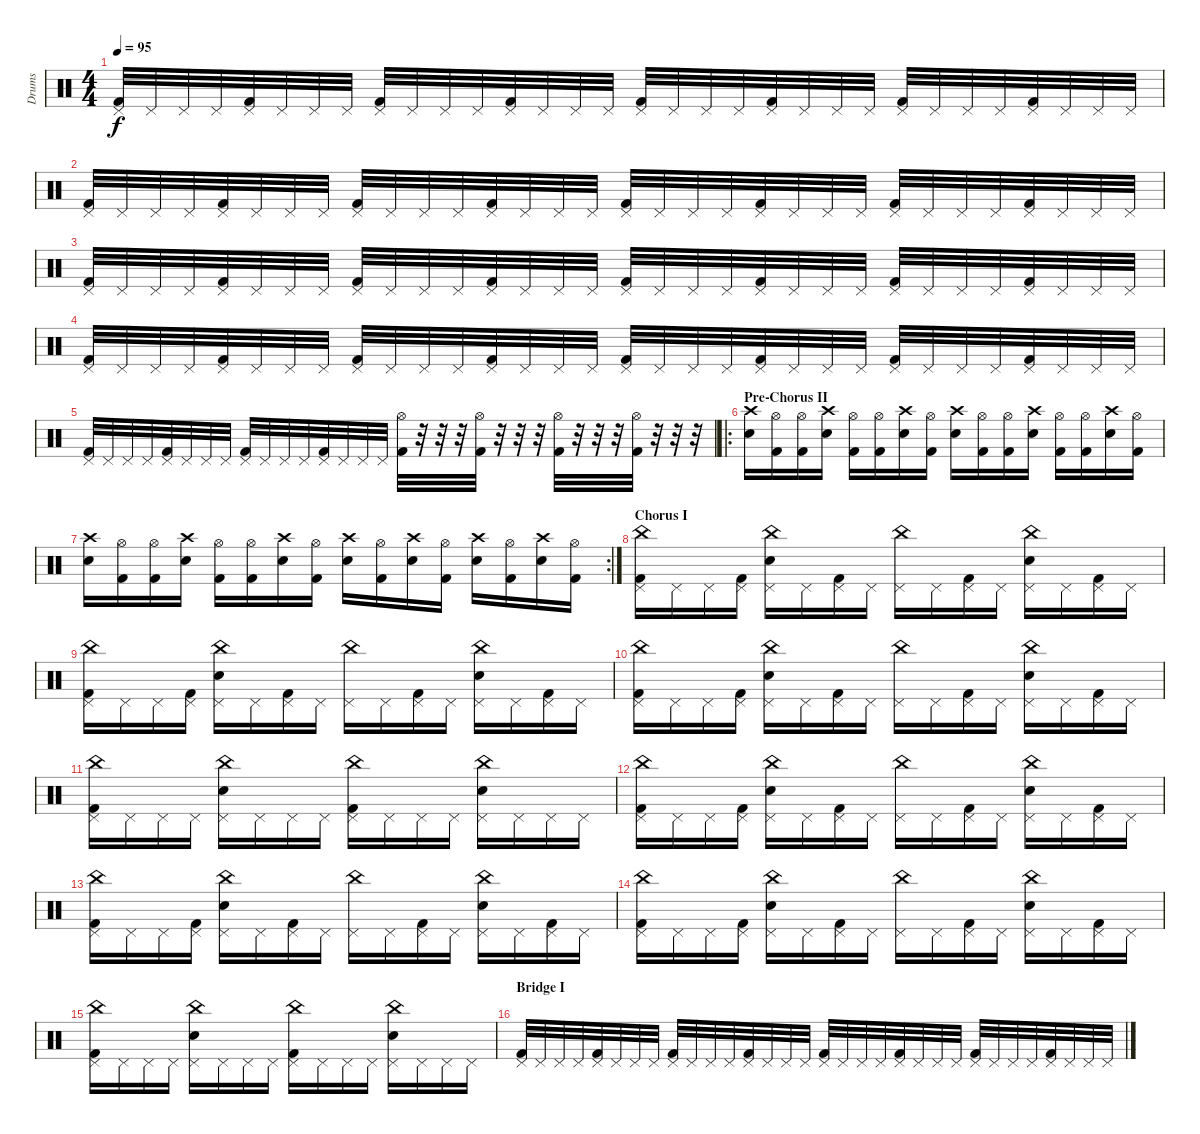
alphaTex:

\track ("Drums" "Drums") {instrument percussion}
\staff {score}
\articulation defaults
\ts (4 4)
\tempo 95
\clef neutral
\ks c
("Pedal Hi-Hat (hit)" "Kick (hit) 2").32{dy f} "Pedal Hi-Hat (hit)".32 "Pedal Hi-Hat (hit)".32 "Pedal Hi-Hat (hit)".32 ("Pedal Hi-Hat (hit)" "Kick (hit) 2").32 "Pedal Hi-Hat (hit)".32 "Pedal Hi-Hat (hit)".32 "Pedal Hi-Hat (hit)".32 ("Pedal Hi-Hat (hit)" "Kick (hit) 2").32 "Pedal Hi-Hat (hit)".32 "Pedal Hi-Hat (hit)".32 "Pedal Hi-Hat (hit)".32 ("Pedal Hi-Hat (hit)" "Kick (hit) 2").32 "Pedal Hi-Hat (hit)".32 "Pedal Hi-Hat (hit)".32 "Pedal Hi-Hat (hit)".32 ("Pedal Hi-Hat (hit)" "Kick (hit) 2").32 "Pedal Hi-Hat (hit)".32 "Pedal Hi-Hat (hit)".32 "Pedal Hi-Hat (hit)".32 ("Pedal Hi-Hat (hit)" "Kick (hit) 2").32 "Pedal Hi-Hat (hit)".32 "Pedal Hi-Hat (hit)".32 "Pedal Hi-Hat (hit)".32 ("Pedal Hi-Hat (hit)" "Kick (hit) 2").32 "Pedal Hi-Hat (hit)".32 "Pedal Hi-Hat (hit)".32 "Pedal Hi-Hat (hit)".32 ("Pedal Hi-Hat (hit)" "Kick (hit) 2").32 "Pedal Hi-Hat (hit)".32 "Pedal Hi-Hat (hit)".32 "Pedal Hi-Hat (hit)".32 |
("Pedal Hi-Hat (hit)" "Kick (hit) 2").32 "Pedal Hi-Hat (hit)".32 "Pedal Hi-Hat (hit)".32 "Pedal Hi-Hat (hit)".32 ("Pedal Hi-Hat (hit)" "Kick (hit) 2").32 "Pedal Hi-Hat (hit)".32 "Pedal Hi-Hat (hit)".32 "Pedal Hi-Hat (hit)".32 ("Pedal Hi-Hat (hit)" "Kick (hit) 2").32 "Pedal Hi-Hat (hit)".32 "Pedal Hi-Hat (hit)".32 "Pedal Hi-Hat (hit)".32 ("Pedal Hi-Hat (hit)" "Kick (hit) 2").32 "Pedal Hi-Hat (hit)".32 "Pedal Hi-Hat (hit)".32 "Pedal Hi-Hat (hit)".32 ("Pedal Hi-Hat (hit)" "Kick (hit) 2").32 "Pedal Hi-Hat (hit)".32 "Pedal Hi-Hat (hit)".32 "Pedal Hi-Hat (hit)".32 ("Pedal Hi-Hat (hit)" "Kick (hit) 2").32 "Pedal Hi-Hat (hit)".32 "Pedal Hi-Hat (hit)".32 "Pedal Hi-Hat (hit)".32 ("Pedal Hi-Hat (hit)" "Kick (hit) 2").32 "Pedal Hi-Hat (hit)".32 "Pedal Hi-Hat (hit)".32 "Pedal Hi-Hat (hit)".32 ("Pedal Hi-Hat (hit)" "Kick (hit) 2").32 "Pedal Hi-Hat (hit)".32 "Pedal Hi-Hat (hit)".32 "Pedal Hi-Hat (hit)".32 |
("Pedal Hi-Hat (hit)" "Kick (hit) 2").32 "Pedal Hi-Hat (hit)".32 "Pedal Hi-Hat (hit)".32 "Pedal Hi-Hat (hit)".32 ("Pedal Hi-Hat (hit)" "Kick (hit) 2").32 "Pedal Hi-Hat (hit)".32 "Pedal Hi-Hat (hit)".32 "Pedal Hi-Hat (hit)".32 ("Pedal Hi-Hat (hit)" "Kick (hit) 2").32 "Pedal Hi-Hat (hit)".32 "Pedal Hi-Hat (hit)".32 "Pedal Hi-Hat (hit)".32 ("Pedal Hi-Hat (hit)" "Kick (hit) 2").32 "Pedal Hi-Hat (hit)".32 "Pedal Hi-Hat (hit)".32 "Pedal Hi-Hat (hit)".32 ("Pedal Hi-Hat (hit)" "Kick (hit) 2").32 "Pedal Hi-Hat (hit)".32 "Pedal Hi-Hat (hit)".32 "Pedal Hi-Hat (hit)".32 ("Pedal Hi-Hat (hit)" "Kick (hit) 2").32 "Pedal Hi-Hat (hit)".32 "Pedal Hi-Hat (hit)".32 "Pedal Hi-Hat (hit)".32 ("Pedal Hi-Hat (hit)" "Kick (hit) 2").32 "Pedal Hi-Hat (hit)".32 "Pedal Hi-Hat (hit)".32 "Pedal Hi-Hat (hit)".32 ("Pedal Hi-Hat (hit)" "Kick (hit) 2").32 "Pedal Hi-Hat (hit)".32 "Pedal Hi-Hat (hit)".32 "Pedal Hi-Hat (hit)".32 |
("Pedal Hi-Hat (hit)" "Kick (hit) 2").32 "Pedal Hi-Hat (hit)".32 "Pedal Hi-Hat (hit)".32 "Pedal Hi-Hat (hit)".32 ("Pedal Hi-Hat (hit)" "Kick (hit) 2").32 "Pedal Hi-Hat (hit)".32 "Pedal Hi-Hat (hit)".32 "Pedal Hi-Hat (hit)".32 ("Pedal Hi-Hat (hit)" "Kick (hit) 2").32 "Pedal Hi-Hat (hit)".32 "Pedal Hi-Hat (hit)".32 "Pedal Hi-Hat (hit)".32 ("Pedal Hi-Hat (hit)" "Kick (hit) 2").32 "Pedal Hi-Hat (hit)".32 "Pedal Hi-Hat (hit)".32 "Pedal Hi-Hat (hit)".32 ("Pedal Hi-Hat (hit)" "Kick (hit) 2").32 "Pedal Hi-Hat (hit)".32 "Pedal Hi-Hat (hit)".32 "Pedal Hi-Hat (hit)".32 ("Pedal Hi-Hat (hit)" "Kick (hit) 2").32 "Pedal Hi-Hat (hit)".32 "Pedal Hi-Hat (hit)".32 "Pedal Hi-Hat (hit)".32 ("Pedal Hi-Hat (hit)" "Kick (hit) 2").32 "Pedal Hi-Hat (hit)".32 "Pedal Hi-Hat (hit)".32 "Pedal Hi-Hat (hit)".32 ("Pedal Hi-Hat (hit)" "Kick (hit) 2").32 "Pedal Hi-Hat (hit)".32 "Pedal Hi-Hat (hit)".32 "Pedal Hi-Hat (hit)".32 |
("Pedal Hi-Hat (hit)" "Kick (hit) 2").32 "Pedal Hi-Hat (hit)".32 "Pedal Hi-Hat (hit)".32 "Pedal Hi-Hat (hit)".32 ("Pedal Hi-Hat (hit)" "Kick (hit) 2").32 "Pedal Hi-Hat (hit)".32 "Pedal Hi-Hat (hit)".32 "Pedal Hi-Hat (hit)".32 ("Pedal Hi-Hat (hit)" "Kick (hit) 2").32 "Pedal Hi-Hat (hit)".32 "Pedal Hi-Hat (hit)".32 "Pedal Hi-Hat (hit)".32 ("Pedal Hi-Hat (hit)" "Kick (hit) 2").32 "Pedal Hi-Hat (hit)".32 "Pedal Hi-Hat (hit)".32 "Pedal Hi-Hat (hit)".32 ("Hi-Hat (open)" "Kick (hit) 2").32 r.32 r.32 r.32 ("Hi-Hat (open)" "Kick (hit) 2").32 r.32 r.32 r.32 ("Hi-Hat (open)" "Kick (hit) 2").32 r.32 r.32 r.32 ("Hi-Hat (open)" "Kick (hit) 2").32 r.32 r.32 r.32 |
\ro
\section ("" "Pre-Chorus II")
("Crash high (hit)" "Electric Snare (hit)").16 ("Hi-Hat (open)" "Kick (hit) 2").16 ("Hi-Hat (open)" "Kick (hit) 2").16 ("Crash high (hit)" "Electric Snare (hit)").16 ("Hi-Hat (open)" "Kick (hit) 2").16 ("Hi-Hat (open)" "Kick (hit) 2").16 ("Crash high (hit)" "Electric Snare (hit)").16 ("Hi-Hat (open)" "Kick (hit) 2").16 ("Crash high (hit)" "Electric Snare (hit)").16 ("Hi-Hat (open)" "Kick (hit) 2").16 ("Hi-Hat (open)" "Kick (hit) 2").16 ("Crash high (hit)" "Electric Snare (hit)").16 ("Hi-Hat (open)" "Kick (hit) 2").16 ("Hi-Hat (open)" "Kick (hit) 2").16 ("Crash high (hit)" "Electric Snare (hit)").16 ("Hi-Hat (open)" "Kick (hit) 2").16 |
\rc 2
("Crash high (hit)" "Electric Snare (hit)").16 ("Hi-Hat (open)" "Kick (hit) 2").16 ("Hi-Hat (open)" "Kick (hit) 2").16 ("Crash high (hit)" "Electric Snare (hit)").16 ("Hi-Hat (open)" "Kick (hit) 2").16 ("Hi-Hat (open)" "Kick (hit) 2").16 ("Crash high (hit)" "Electric Snare (hit)").16 ("Hi-Hat (open)" "Kick (hit) 2").16 ("Crash high (hit)" "Electric Snare (hit)").16 ("Hi-Hat (open)" "Kick (hit) 2").16 ("Crash high (hit)" "Electric Snare (hit)").16 ("Hi-Hat (open)" "Kick (hit) 2").16 ("Crash high (hit)" "Electric Snare (hit)").16 ("Hi-Hat (open)" "Kick (hit) 2").16 ("Crash high (hit)" "Electric Snare (hit)").16 ("Hi-Hat (open)" "Kick (hit) 2").16 |
\section ("" "Chorus I")
("Pedal Hi-Hat (hit)" "China (hit)" "Kick (hit) 2").16 "Pedal Hi-Hat (hit)".16 "Pedal Hi-Hat (hit)".16 ("Pedal Hi-Hat (hit)" "Kick (hit) 2").16 ("Pedal Hi-Hat (hit)" "China (hit)" "Electric Snare (hit)").16 "Pedal Hi-Hat (hit)".16 ("Pedal Hi-Hat (hit)" "Kick (hit) 2").16 "Pedal Hi-Hat (hit)".16 ("Pedal Hi-Hat (hit)" "China (hit)").16 "Pedal Hi-Hat (hit)".16 ("Pedal Hi-Hat (hit)" "Kick (hit) 2").16 "Pedal Hi-Hat (hit)".16 ("Pedal Hi-Hat (hit)" "China (hit)" "Electric Snare (hit)").16 "Pedal Hi-Hat (hit)".16 ("Pedal Hi-Hat (hit)" "Kick (hit) 2").16 "Pedal Hi-Hat (hit)".16 |
("Pedal Hi-Hat (hit)" "China (hit)" "Kick (hit) 2").16 "Pedal Hi-Hat (hit)".16 "Pedal Hi-Hat (hit)".16 ("Pedal Hi-Hat (hit)" "Kick (hit) 2").16 ("Pedal Hi-Hat (hit)" "China (hit)" "Electric Snare (hit)").16 "Pedal Hi-Hat (hit)".16 ("Pedal Hi-Hat (hit)" "Kick (hit) 2").16 "Pedal Hi-Hat (hit)".16 ("Pedal Hi-Hat (hit)" "China (hit)").16 "Pedal Hi-Hat (hit)".16 ("Pedal Hi-Hat (hit)" "Kick (hit) 2").16 "Pedal Hi-Hat (hit)".16 ("Pedal Hi-Hat (hit)" "China (hit)" "Electric Snare (hit)").16 "Pedal Hi-Hat (hit)".16 ("Pedal Hi-Hat (hit)" "Kick (hit) 2").16 "Pedal Hi-Hat (hit)".16 |
("Pedal Hi-Hat (hit)" "China (hit)" "Kick (hit) 2").16 "Pedal Hi-Hat (hit)".16 "Pedal Hi-Hat (hit)".16 ("Pedal Hi-Hat (hit)" "Kick (hit) 2").16 ("Pedal Hi-Hat (hit)" "China (hit)" "Electric Snare (hit)").16 "Pedal Hi-Hat (hit)".16 ("Pedal Hi-Hat (hit)" "Kick (hit) 2").16 "Pedal Hi-Hat (hit)".16 ("Pedal Hi-Hat (hit)" "China (hit)").16 "Pedal Hi-Hat (hit)".16 ("Pedal Hi-Hat (hit)" "Kick (hit) 2").16 "Pedal Hi-Hat (hit)".16 ("Pedal Hi-Hat (hit)" "China (hit)" "Electric Snare (hit)").16 "Pedal Hi-Hat (hit)".16 ("Pedal Hi-Hat (hit)" "Kick (hit) 2").16 "Pedal Hi-Hat (hit)".16 |
("Pedal Hi-Hat (hit)" "China (hit)" "Kick (hit) 2").16 "Pedal Hi-Hat (hit)".16 "Pedal Hi-Hat (hit)".16 "Pedal Hi-Hat (hit)".16 ("Pedal Hi-Hat (hit)" "China (hit)" "Electric Snare (hit)").16 "Pedal Hi-Hat (hit)".16 "Pedal Hi-Hat (hit)".16 "Pedal Hi-Hat (hit)".16 ("Pedal Hi-Hat (hit)" "China (hit)" "Kick (hit) 2").16 "Pedal Hi-Hat (hit)".16 "Pedal Hi-Hat (hit)".16 "Pedal Hi-Hat (hit)".16 ("Pedal Hi-Hat (hit)" "China (hit)" "Electric Snare (hit)").16 "Pedal Hi-Hat (hit)".16 "Pedal Hi-Hat (hit)".16 "Pedal Hi-Hat (hit)".16 |
("Pedal Hi-Hat (hit)" "China (hit)" "Kick (hit) 2").16 "Pedal Hi-Hat (hit)".16 "Pedal Hi-Hat (hit)".16 ("Pedal Hi-Hat (hit)" "Kick (hit) 2").16 ("Pedal Hi-Hat (hit)" "China (hit)" "Electric Snare (hit)").16 "Pedal Hi-Hat (hit)".16 ("Pedal Hi-Hat (hit)" "Kick (hit) 2").16 "Pedal Hi-Hat (hit)".16 ("Pedal Hi-Hat (hit)" "China (hit)").16 "Pedal Hi-Hat (hit)".16 ("Pedal Hi-Hat (hit)" "Kick (hit) 2").16 "Pedal Hi-Hat (hit)".16 ("Pedal Hi-Hat (hit)" "China (hit)" "Electric Snare (hit)").16 "Pedal Hi-Hat (hit)".16 ("Pedal Hi-Hat (hit)" "Kick (hit) 2").16 "Pedal Hi-Hat (hit)".16 |
("Pedal Hi-Hat (hit)" "China (hit)" "Kick (hit) 2").16 "Pedal Hi-Hat (hit)".16 "Pedal Hi-Hat (hit)".16 ("Pedal Hi-Hat (hit)" "Kick (hit) 2").16 ("Pedal Hi-Hat (hit)" "China (hit)" "Electric Snare (hit)").16 "Pedal Hi-Hat (hit)".16 ("Pedal Hi-Hat (hit)" "Kick (hit) 2").16 "Pedal Hi-Hat (hit)".16 ("Pedal Hi-Hat (hit)" "China (hit)").16 "Pedal Hi-Hat (hit)".16 ("Pedal Hi-Hat (hit)" "Kick (hit) 2").16 "Pedal Hi-Hat (hit)".16 ("Pedal Hi-Hat (hit)" "China (hit)" "Electric Snare (hit)").16 "Pedal Hi-Hat (hit)".16 ("Pedal Hi-Hat (hit)" "Kick (hit) 2").16 "Pedal Hi-Hat (hit)".16 |
("Pedal Hi-Hat (hit)" "China (hit)" "Kick (hit) 2").16 "Pedal Hi-Hat (hit)".16 "Pedal Hi-Hat (hit)".16 ("Pedal Hi-Hat (hit)" "Kick (hit) 2").16 ("Pedal Hi-Hat (hit)" "China (hit)" "Electric Snare (hit)").16 "Pedal Hi-Hat (hit)".16 ("Pedal Hi-Hat (hit)" "Kick (hit) 2").16 "Pedal Hi-Hat (hit)".16 ("Pedal Hi-Hat (hit)" "China (hit)").16 "Pedal Hi-Hat (hit)".16 ("Pedal Hi-Hat (hit)" "Kick (hit) 2").16 "Pedal Hi-Hat (hit)".16 ("Pedal Hi-Hat (hit)" "China (hit)" "Electric Snare (hit)").16 "Pedal Hi-Hat (hit)".16 ("Pedal Hi-Hat (hit)" "Kick (hit) 2").16 "Pedal Hi-Hat (hit)".16 |
("Pedal Hi-Hat (hit)" "China (hit)" "Kick (hit) 2").16 "Pedal Hi-Hat (hit)".16 "Pedal Hi-Hat (hit)".16 "Pedal Hi-Hat (hit)".16 ("Pedal Hi-Hat (hit)" "China (hit)" "Electric Snare (hit)").16 "Pedal Hi-Hat (hit)".16 "Pedal Hi-Hat (hit)".16 "Pedal Hi-Hat (hit)".16 ("Pedal Hi-Hat (hit)" "China (hit)" "Kick (hit) 2").16 "Pedal Hi-Hat (hit)".16 "Pedal Hi-Hat (hit)".16 "Pedal Hi-Hat (hit)".16 ("Pedal Hi-Hat (hit)" "China (hit)" "Electric Snare (hit)").16 "Pedal Hi-Hat (hit)".16 "Pedal Hi-Hat (hit)".16 "Pedal Hi-Hat (hit)".16 |
\section ("" "Bridge I")
("Pedal Hi-Hat (hit)" "Kick (hit) 2").32 "Pedal Hi-Hat (hit)".32 "Pedal Hi-Hat (hit)".32 "Pedal Hi-Hat (hit)".32 ("Pedal Hi-Hat (hit)" "Kick (hit) 2").32 "Pedal Hi-Hat (hit)".32 "Pedal Hi-Hat (hit)".32 "Pedal Hi-Hat (hit)".32 ("Pedal Hi-Hat (hit)" "Kick (hit) 2").32 "Pedal Hi-Hat (hit)".32 "Pedal Hi-Hat (hit)".32 "Pedal Hi-Hat (hit)".32 ("Pedal Hi-Hat (hit)" "Kick (hit) 2").32 "Pedal Hi-Hat (hit)".32 "Pedal Hi-Hat (hit)".32 "Pedal Hi-Hat (hit)".32 ("Pedal Hi-Hat (hit)" "Kick (hit) 2").32 "Pedal Hi-Hat (hit)".32 "Pedal Hi-Hat (hit)".32 "Pedal Hi-Hat (hit)".32 ("Pedal Hi-Hat (hit)" "Kick (hit) 2").32 "Pedal Hi-Hat (hit)".32 "Pedal Hi-Hat (hit)".32 "Pedal Hi-Hat (hit)".32 ("Pedal Hi-Hat (hit)" "Kick (hit) 2").32 "Pedal Hi-Hat (hit)".32 "Pedal Hi-Hat (hit)".32 "Pedal Hi-Hat (hit)".32 ("Pedal Hi-Hat (hit)" "Kick (hit) 2").32 "Pedal Hi-Hat (hit)".32 "Pedal Hi-Hat (hit)".32 "Pedal Hi-Hat (hit)".32
